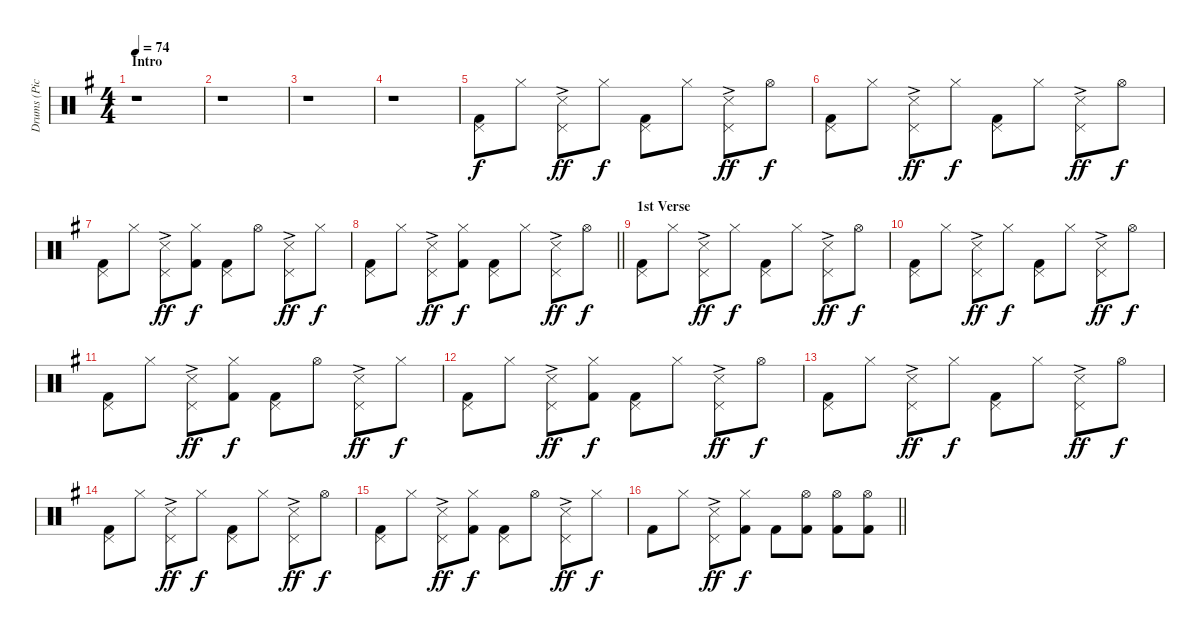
\track ("Drums (Pick)" "Drums (Pic") {instrument percussion}
\staff {score}
\articulation defaults
\ts (4 4)
\section ("" "Intro")
\tempo 74
\clef neutral
\ks g
r.1{dy f} |
r.1 |
r.1 |
r.1 |
("Kick (hit) 2" "Pedal Hi-Hat (hit)").8 "Hi-Hat (closed)".8 ("Snare (side stick) 3"{ac} "Pedal Hi-Hat (hit)").8{dy ff} "Hi-Hat (closed)".8{dy f} ("Kick (hit) 2" "Pedal Hi-Hat (hit)").8 "Hi-Hat (closed)".8 ("Snare (side stick) 3"{ac} "Pedal Hi-Hat (hit)").8{dy ff} "Hi-Hat (open)".8{dy f} |
("Kick (hit) 2" "Pedal Hi-Hat (hit)").8 "Hi-Hat (closed)".8 ("Snare (side stick) 3"{ac} "Pedal Hi-Hat (hit)").8{dy ff} "Hi-Hat (closed)".8{dy f} ("Kick (hit) 2" "Pedal Hi-Hat (hit)").8 "Hi-Hat (closed)".8 ("Snare (side stick) 3"{ac} "Pedal Hi-Hat (hit)").8{dy ff} "Hi-Hat (open)".8{dy f} |
("Kick (hit) 2" "Pedal Hi-Hat (hit)").8 "Hi-Hat (closed)".8 ("Snare (side stick) 3"{ac} "Pedal Hi-Hat (hit)").8{dy ff} ("Hi-Hat (closed)" "Kick (hit) 2").8{dy f} ("Kick (hit) 2" "Pedal Hi-Hat (hit)").8 "Hi-Hat (open)".8 ("Snare (side stick) 3"{ac} "Pedal Hi-Hat (hit)").8{dy ff} "Hi-Hat (closed)".8{dy f} |
\barLineRight lightlight
("Kick (hit) 2" "Pedal Hi-Hat (hit)").8 "Hi-Hat (closed)".8 ("Snare (side stick) 3"{ac} "Pedal Hi-Hat (hit)").8{dy ff} ("Hi-Hat (closed)" "Kick (hit) 2").8{dy f} ("Kick (hit) 2" "Pedal Hi-Hat (hit)").8 "Hi-Hat (closed)".8 ("Snare (side stick) 3"{ac} "Pedal Hi-Hat (hit)").8{dy ff} "Hi-Hat (open)".8{dy f} |
\section ("" "1st Verse")
("Kick (hit) 2" "Pedal Hi-Hat (hit)").8 "Hi-Hat (closed)".8 ("Snare (side stick) 3"{ac} "Pedal Hi-Hat (hit)").8{dy ff} "Hi-Hat (closed)".8{dy f} ("Kick (hit) 2" "Pedal Hi-Hat (hit)").8 "Hi-Hat (closed)".8 ("Snare (side stick) 3"{ac} "Pedal Hi-Hat (hit)").8{dy ff} "Hi-Hat (open)".8{dy f} |
("Kick (hit) 2" "Pedal Hi-Hat (hit)").8 "Hi-Hat (closed)".8 ("Snare (side stick) 3"{ac} "Pedal Hi-Hat (hit)").8{dy ff} "Hi-Hat (closed)".8{dy f} ("Kick (hit) 2" "Pedal Hi-Hat (hit)").8 "Hi-Hat (closed)".8 ("Snare (side stick) 3"{ac} "Pedal Hi-Hat (hit)").8{dy ff} "Hi-Hat (open)".8{dy f} |
("Kick (hit) 2" "Pedal Hi-Hat (hit)").8 "Hi-Hat (closed)".8 ("Snare (side stick) 3"{ac} "Pedal Hi-Hat (hit)").8{dy ff} ("Hi-Hat (closed)" "Kick (hit) 2").8{dy f} ("Kick (hit) 2" "Pedal Hi-Hat (hit)").8 "Hi-Hat (open)".8 ("Snare (side stick) 3"{ac} "Pedal Hi-Hat (hit)").8{dy ff} "Hi-Hat (closed)".8{dy f} |
("Kick (hit) 2" "Pedal Hi-Hat (hit)").8 "Hi-Hat (closed)".8 ("Snare (side stick) 3"{ac} "Pedal Hi-Hat (hit)").8{dy ff} ("Hi-Hat (closed)" "Kick (hit) 2").8{dy f} ("Kick (hit) 2" "Pedal Hi-Hat (hit)").8 "Hi-Hat (closed)".8 ("Snare (side stick) 3"{ac} "Pedal Hi-Hat (hit)").8{dy ff} "Hi-Hat (open)".8{dy f} |
("Kick (hit) 2" "Pedal Hi-Hat (hit)").8 "Hi-Hat (closed)".8 ("Snare (side stick) 3"{ac} "Pedal Hi-Hat (hit)").8{dy ff} "Hi-Hat (closed)".8{dy f} ("Kick (hit) 2" "Pedal Hi-Hat (hit)").8 "Hi-Hat (closed)".8 ("Snare (side stick) 3"{ac} "Pedal Hi-Hat (hit)").8{dy ff} "Hi-Hat (open)".8{dy f} |
("Kick (hit) 2" "Pedal Hi-Hat (hit)").8 "Hi-Hat (closed)".8 ("Snare (side stick) 3"{ac} "Pedal Hi-Hat (hit)").8{dy ff} "Hi-Hat (closed)".8{dy f} ("Kick (hit) 2" "Pedal Hi-Hat (hit)").8 "Hi-Hat (closed)".8 ("Snare (side stick) 3"{ac} "Pedal Hi-Hat (hit)").8{dy ff} "Hi-Hat (open)".8{dy f} |
("Kick (hit) 2" "Pedal Hi-Hat (hit)").8 "Hi-Hat (closed)".8 ("Snare (side stick) 3"{ac} "Pedal Hi-Hat (hit)").8{dy ff} ("Hi-Hat (closed)" "Kick (hit) 2").8{dy f} ("Kick (hit) 2" "Pedal Hi-Hat (hit)").8 "Hi-Hat (open)".8 ("Snare (side stick) 3"{ac} "Pedal Hi-Hat (hit)").8{dy ff} "Hi-Hat (closed)".8{dy f} |
\barLineRight lightlight "Kick (hit) 2".8 "Hi-Hat (closed)".8
("Snare (side stick) 3"{ac} "Pedal Hi-Hat (hit)").8{dy ff} ("Hi-Hat (closed)" "Kick (hit) 2").8{dy f} "Kick (hit) 2".8 ("Hi-Hat (open)" "Kick (hit) 2").8 ("Hi-Hat (open)" "Kick (hit) 2").8 ("Hi-Hat (open)" "Kick (hit) 2").8
